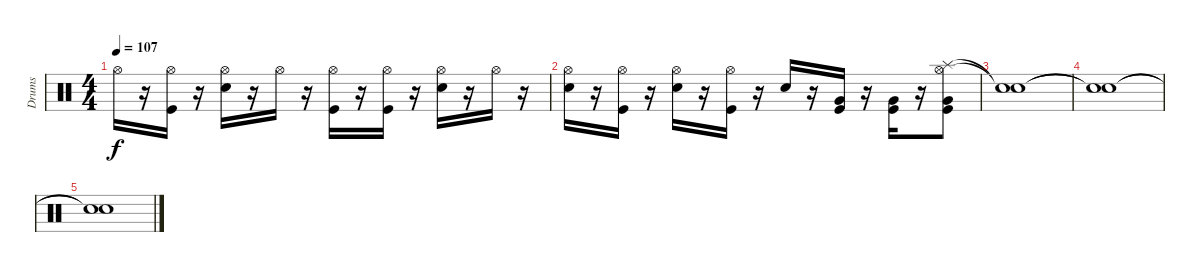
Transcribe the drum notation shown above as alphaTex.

\track ("Drums" "Drums") {instrument percussion}
\staff {score}
\articulation defaults
\ts (4 4)
\tempo 107
\clef neutral
\ks c "Hi-Hat (open)".16{dy f}
r.16 ("Kick (hit)" "Hi-Hat (open)").16 r.16 ("Hi-Hat (open)" "Electric Snare (hit)").16 r.16 "Hi-Hat (open)".16 r.16 ("Kick (hit)" "Hi-Hat (open)").16 r.16 ("Hi-Hat (open)" "Kick (hit)").16 r.16 ("Electric Snare (hit)" "Hi-Hat (open)").16 r.16 "Hi-Hat (open)".16 r.16 |
("Hi-Hat (open)" "Electric Snare (hit)").16 r.16 ("Hi-Hat (open)" "Kick (hit)").16 r.16 ("Hi-Hat (open)" "Electric Snare (hit)").16 r.16 ("Hi-Hat (open)" "Kick (hit)").16 r.16 "Electric Snare (hit)".16 r.16 ("Very Low Tom (hit)" "Kick (hit)").16 r.16 ("Kick (hit)" "Very Low Tom (hit)").16 r.16 ("Splash (hit)" "Hi-Hat (open)" "Very Low Tom (hit)" "Kick (hit)").8 |
("Snare (hit)"{t} "Snare (hit)"{t}).1 |
("Snare (hit)"{t} "Snare (hit)"{t}).1 |
("Snare (hit)"{t} "Snare (hit)"{t}).1
